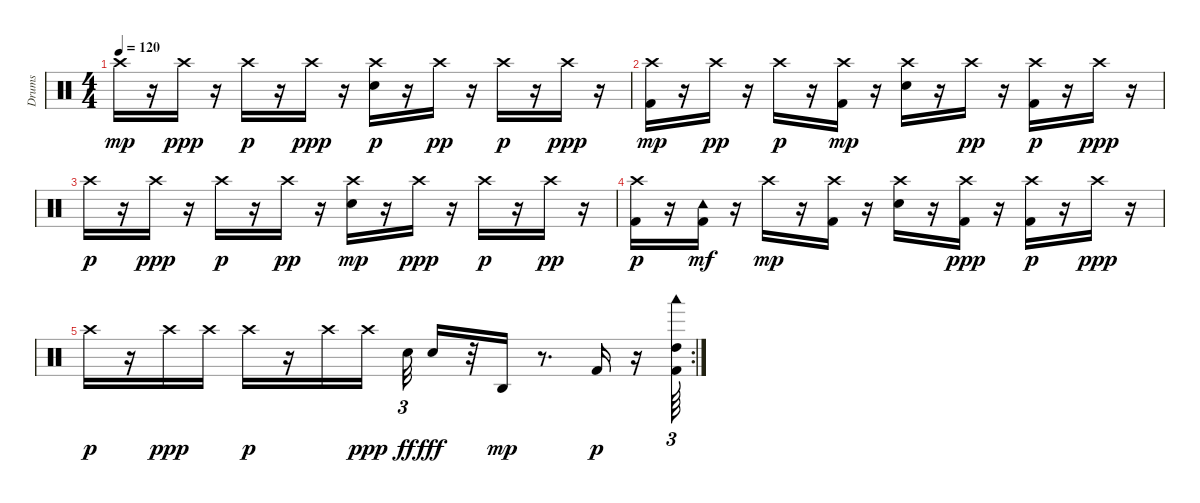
\track ("Drums" "Drums") {instrument percussion}
\staff {score}
\articulation defaults
\ts (4 4)
\tempo 120
\clef neutral
\ks c "Crash high (hit)".16{dy mp}
r.16 "Crash high (hit)".16{dy ppp} r.16 "Crash high (hit)".16{dy p} r.16 "Crash high (hit)".16{dy ppp} r.16 ("Snare (hit) 2" "Crash high (hit)").16{dy p} r.16 "Crash high (hit)".16{dy pp} r.16 "Crash high (hit)".16{dy p} r.16 "Crash high (hit)".16{dy ppp} r.16 |
("Crash high (hit)" "Kick (hit) 2").16{dy mp} r.16 "Crash high (hit)".16{dy pp} r.16 "Crash high (hit)".16{dy p} r.16 ("Crash high (hit)" "Kick (hit) 2").16{dy mp} r.16 ("Snare (hit) 2" "Crash high (hit)").16 r.16 "Crash high (hit)".16{dy pp} r.16 ("Kick (hit) 2" "Crash high (hit)").16{dy p} r.16 "Crash high (hit)".16{dy ppp} r.16 |
"Crash high (hit)".16{dy p} r.16 "Crash high (hit)".16{dy ppp} r.16 "Crash high (hit)".16{dy p} r.16 "Crash high (hit)".16{dy pp} r.16 ("Snare (hit) 2" "Crash high (hit)").16{dy mp} r.16 "Crash high (hit)".16{dy ppp} r.16 "Crash high (hit)".16{dy p} r.16 "Crash high (hit)".16{dy pp} r.16 |
("Kick (hit) 2" "Crash high (hit)").16{dy p} r.16 ("Kick (hit) 2" "Tambourine (hit)").16{dy mf} r.16 "Crash high (hit)".16{dy mp} r.16 ("Crash high (hit)" "Kick (hit) 2").16 r.16 ("Snare (hit) 2" "Crash high (hit)").16 r.16 ("Kick (hit) 2" "Crash high (hit)").16{dy ppp} r.16 ("Kick (hit) 2" "Crash high (hit)").16{dy p} r.16 "Crash high (hit)".16{dy ppp} r.16 |
\rc 2 "Crash high (hit)".16{dy p}
r.16 "Crash high (hit)".16{dy ppp} "Crash high (hit)".16 "Crash high (hit)".16{dy p} r.16 "Crash high (hit)".16 "Crash high (hit)".16{dy ppp} "Snare (hit) 2".32{tu (3 2) dy ff} "Snare (hit) 2".16{dy fff} r.32 "Agogo high (hit)".16{dy mp} r.8{d} "Kick (hit) 2".16{dy p} r.16 ("Kick (hit) 2" "High Tom (hit)" "Woodblock low (hit)").64{tu (3 2)}
